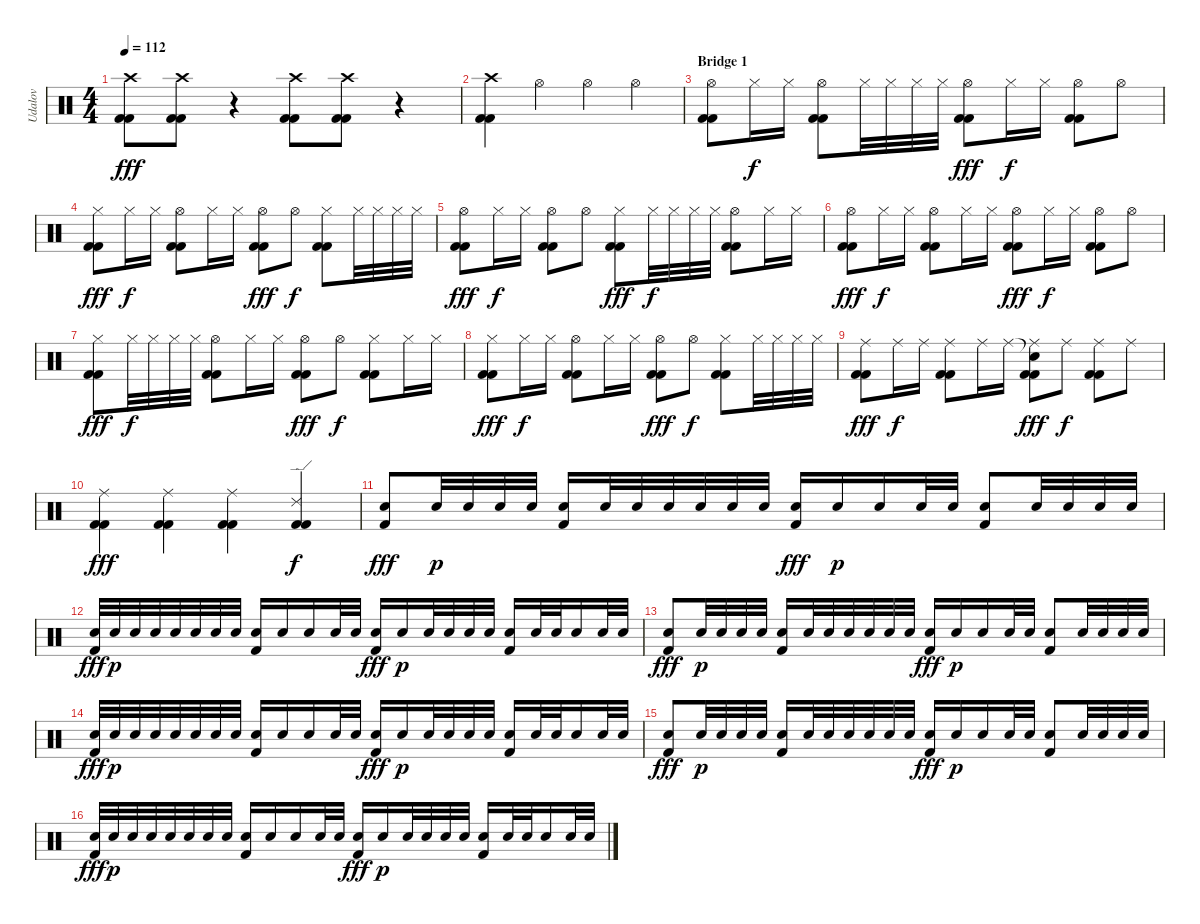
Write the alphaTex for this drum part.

\track ("Udalov" "Udalov") {instrument percussion}
\staff {score}
\articulation defaults
\ts (4 4)
\tempo 112
\clef neutral
\ks c
("Crash high (hit)" "Kick (hit) 2" "Kick (hit) 2").8{dy fff} ("Crash high (hit)" "Kick (hit) 2" "Kick (hit) 2").8 r.4 ("Crash high (hit)" "Kick (hit) 2" "Kick (hit) 2").8 ("Crash high (hit)" "Kick (hit) 2" "Kick (hit) 2").8 r.4 |
("Crash high (hit)" "Kick (hit) 2" "Kick (hit) 2").4 "Hi-Hat (open)".4 "Hi-Hat (open)".4 "Hi-Hat (open)".4 |
\section ("" "Bridge 1")
("Hi-Hat (open)" "Kick (hit) 2" "Kick (hit) 2").8 "Hi-Hat (closed)".16{dy f} "Hi-Hat (closed)".16 ("Hi-Hat (open)" "Kick (hit) 2" "Kick (hit) 2").8 "Hi-Hat (closed)".32 "Hi-Hat (closed)".32 "Hi-Hat (closed)".32 "Hi-Hat (closed)".32 ("Hi-Hat (open)" "Kick (hit) 2" "Kick (hit) 2").8{dy fff} "Hi-Hat (closed)".16{dy f} "Hi-Hat (closed)".16 ("Hi-Hat (open)" "Kick (hit) 2" "Kick (hit) 2").8 "Hi-Hat (open)".8 |
("Hi-Hat (closed)" "Kick (hit) 2" "Kick (hit) 2").8{dy fff} "Hi-Hat (closed)".16{dy f} "Hi-Hat (closed)".16 ("Hi-Hat (open)" "Kick (hit) 2" "Kick (hit) 2").8 "Hi-Hat (closed)".16 "Hi-Hat (closed)".16 ("Hi-Hat (open)" "Kick (hit) 2" "Kick (hit) 2").8{dy fff} "Hi-Hat (open)".8{dy f} ("Hi-Hat (closed)" "Kick (hit) 2" "Kick (hit) 2").8 "Hi-Hat (closed)".32 "Hi-Hat (closed)".32 "Hi-Hat (closed)".32 "Hi-Hat (closed)".32 |
("Hi-Hat (open)" "Kick (hit) 2" "Kick (hit) 2").8{dy fff} "Hi-Hat (closed)".16{dy f} "Hi-Hat (closed)".16 ("Hi-Hat (open)" "Kick (hit) 2" "Kick (hit) 2").8 "Hi-Hat (open)".8 ("Hi-Hat (closed)" "Kick (hit) 2" "Kick (hit) 2").8{dy fff} "Hi-Hat (closed)".32{dy f} "Hi-Hat (closed)".32 "Hi-Hat (closed)".32 "Hi-Hat (closed)".32 ("Hi-Hat (open)" "Kick (hit) 2" "Kick (hit) 2").8 "Hi-Hat (closed)".16 "Hi-Hat (closed)".16 |
("Hi-Hat (open)" "Kick (hit) 2" "Kick (hit) 2").8{dy fff} "Hi-Hat (closed)".16{dy f} "Hi-Hat (closed)".16 ("Hi-Hat (open)" "Kick (hit) 2" "Kick (hit) 2").8 "Hi-Hat (closed)".16 "Hi-Hat (closed)".16 ("Hi-Hat (open)" "Kick (hit) 2" "Kick (hit) 2").8{dy fff} "Hi-Hat (closed)".16{dy f} "Hi-Hat (closed)".16 ("Hi-Hat (open)" "Kick (hit) 2" "Kick (hit) 2").8 "Hi-Hat (open)".8 |
("Hi-Hat (closed)" "Kick (hit) 2" "Kick (hit) 2").8{dy fff} "Hi-Hat (closed)".32{dy f} "Hi-Hat (closed)".32 "Hi-Hat (closed)".32 "Hi-Hat (closed)".32 ("Hi-Hat (open)" "Kick (hit) 2" "Kick (hit) 2").8 "Hi-Hat (closed)".16 "Hi-Hat (closed)".16 ("Hi-Hat (open)" "Kick (hit) 2" "Kick (hit) 2").8{dy fff} "Hi-Hat (open)".8{dy f} ("Hi-Hat (closed)" "Kick (hit) 2" "Kick (hit) 2").8 "Hi-Hat (closed)".16 "Hi-Hat (closed)".16 |
("Hi-Hat (closed)" "Kick (hit) 2" "Kick (hit) 2").8{dy fff} "Hi-Hat (closed)".16{dy f} "Hi-Hat (closed)".16 ("Hi-Hat (open)" "Kick (hit) 2" "Kick (hit) 2").8 "Hi-Hat (closed)".16 "Hi-Hat (closed)".16 ("Hi-Hat (open)" "Kick (hit) 2" "Kick (hit) 2").8{dy fff} "Hi-Hat (open)".8{dy f} ("Hi-Hat (closed)" "Kick (hit) 2" "Kick (hit) 2").8 "Hi-Hat (closed)".32 "Hi-Hat (closed)".32 "Hi-Hat (closed)".32 "Hi-Hat (closed)".32 |
("Ride (middle)" "Kick (hit) 2" "Kick (hit) 2").8{dy fff} "Ride (middle)".16{dy f} "Ride (middle)".16 ("Ride (middle)" "Kick (hit) 2" "Kick (hit) 2").8 "Ride (middle)".16 "Ride (middle)".16 ("Snare (hit)"{t} "Ride (middle)" "Kick (hit) 2" "Kick (hit) 2").8{dy fff} "Ride (middle)".8{dy f} ("Ride (middle)" "Kick (hit) 2" "Kick (hit) 2").8 "Ride (middle)".8 |
("Ride (middle)" "Kick (hit) 2" "Kick (hit) 2").4{dy fff} ("Ride (middle)" "Kick (hit) 2" "Kick (hit) 2").4 ("Ride (middle)" "Kick (hit) 2" "Kick (hit) 2").4 ("Ride (edge) 2" "Kick (hit) 2" "Kick (hit) 2").4{dy f} |
("Electric Snare (hit)" "Kick (hit) 2").8{dy fff} "Electric Snare (hit)".32{dy p} "Electric Snare (hit)".32 "Electric Snare (hit)".32 "Electric Snare (hit)".32 ("Electric Snare (hit)" "Kick (hit) 2").16 "Electric Snare (hit)".32 "Electric Snare (hit)".32 "Electric Snare (hit)".32 "Electric Snare (hit)".32 "Electric Snare (hit)".32 "Electric Snare (hit)".32 ("Electric Snare (hit)" "Kick (hit) 2").16{dy fff} "Electric Snare (hit)".16{dy p} "Electric Snare (hit)".16 "Electric Snare (hit)".32 "Electric Snare (hit)".32 ("Electric Snare (hit)" "Kick (hit) 2").8 "Electric Snare (hit)".32 "Electric Snare (hit)".32 "Electric Snare (hit)".32 "Electric Snare (hit)".32 |
("Electric Snare (hit)" "Kick (hit) 2").32{dy fff} "Electric Snare (hit)".32{dy p} "Electric Snare (hit)".32 "Electric Snare (hit)".32 "Electric Snare (hit)".32 "Electric Snare (hit)".32 "Electric Snare (hit)".32 "Electric Snare (hit)".32 ("Electric Snare (hit)" "Kick (hit) 2").16 "Electric Snare (hit)".16 "Electric Snare (hit)".16 "Electric Snare (hit)".32 "Electric Snare (hit)".32 ("Electric Snare (hit)" "Kick (hit) 2").16{dy fff} "Electric Snare (hit)".16{dy p} "Electric Snare (hit)".32 "Electric Snare (hit)".32 "Electric Snare (hit)".32 "Electric Snare (hit)".32 ("Electric Snare (hit)" "Kick (hit) 2").16 "Electric Snare (hit)".32 "Electric Snare (hit)".32 "Electric Snare (hit)".16 "Electric Snare (hit)".32 "Electric Snare (hit)".32 |
("Electric Snare (hit)" "Kick (hit) 2").8{dy fff} "Electric Snare (hit)".32{dy p} "Electric Snare (hit)".32 "Electric Snare (hit)".32 "Electric Snare (hit)".32 ("Electric Snare (hit)" "Kick (hit) 2").16 "Electric Snare (hit)".32 "Electric Snare (hit)".32 "Electric Snare (hit)".32 "Electric Snare (hit)".32 "Electric Snare (hit)".32 "Electric Snare (hit)".32 ("Electric Snare (hit)" "Kick (hit) 2").16{dy fff} "Electric Snare (hit)".16{dy p} "Electric Snare (hit)".16 "Electric Snare (hit)".32 "Electric Snare (hit)".32 ("Electric Snare (hit)" "Kick (hit) 2").8 "Electric Snare (hit)".32 "Electric Snare (hit)".32 "Electric Snare (hit)".32 "Electric Snare (hit)".32 |
("Electric Snare (hit)" "Kick (hit) 2").32{dy fff} "Electric Snare (hit)".32{dy p} "Electric Snare (hit)".32 "Electric Snare (hit)".32 "Electric Snare (hit)".32 "Electric Snare (hit)".32 "Electric Snare (hit)".32 "Electric Snare (hit)".32 ("Electric Snare (hit)" "Kick (hit) 2").16 "Electric Snare (hit)".16 "Electric Snare (hit)".16 "Electric Snare (hit)".32 "Electric Snare (hit)".32 ("Electric Snare (hit)" "Kick (hit) 2").16{dy fff} "Electric Snare (hit)".16{dy p} "Electric Snare (hit)".32 "Electric Snare (hit)".32 "Electric Snare (hit)".32 "Electric Snare (hit)".32 ("Electric Snare (hit)" "Kick (hit) 2").16 "Electric Snare (hit)".32 "Electric Snare (hit)".32 "Electric Snare (hit)".16 "Electric Snare (hit)".32 "Electric Snare (hit)".32 |
("Electric Snare (hit)" "Kick (hit) 2").8{dy fff} "Electric Snare (hit)".32{dy p} "Electric Snare (hit)".32 "Electric Snare (hit)".32 "Electric Snare (hit)".32 ("Electric Snare (hit)" "Kick (hit) 2").16 "Electric Snare (hit)".32 "Electric Snare (hit)".32 "Electric Snare (hit)".32 "Electric Snare (hit)".32 "Electric Snare (hit)".32 "Electric Snare (hit)".32 ("Electric Snare (hit)" "Kick (hit) 2").16{dy fff} "Electric Snare (hit)".16{dy p} "Electric Snare (hit)".16 "Electric Snare (hit)".32 "Electric Snare (hit)".32 ("Electric Snare (hit)" "Kick (hit) 2").8 "Electric Snare (hit)".32 "Electric Snare (hit)".32 "Electric Snare (hit)".32 "Electric Snare (hit)".32 |
("Electric Snare (hit)" "Kick (hit) 2").32{dy fff} "Electric Snare (hit)".32{dy p} "Electric Snare (hit)".32 "Electric Snare (hit)".32 "Electric Snare (hit)".32 "Electric Snare (hit)".32 "Electric Snare (hit)".32 "Electric Snare (hit)".32 ("Electric Snare (hit)" "Kick (hit) 2").16 "Electric Snare (hit)".16 "Electric Snare (hit)".16 "Electric Snare (hit)".32 "Electric Snare (hit)".32 ("Electric Snare (hit)" "Kick (hit) 2").16{dy fff} "Electric Snare (hit)".16{dy p} "Electric Snare (hit)".32 "Electric Snare (hit)".32 "Electric Snare (hit)".32 "Electric Snare (hit)".32 ("Electric Snare (hit)" "Kick (hit) 2").16 "Electric Snare (hit)".32 "Electric Snare (hit)".32 "Electric Snare (hit)".16 "Electric Snare (hit)".32 "Electric Snare (hit)".32
